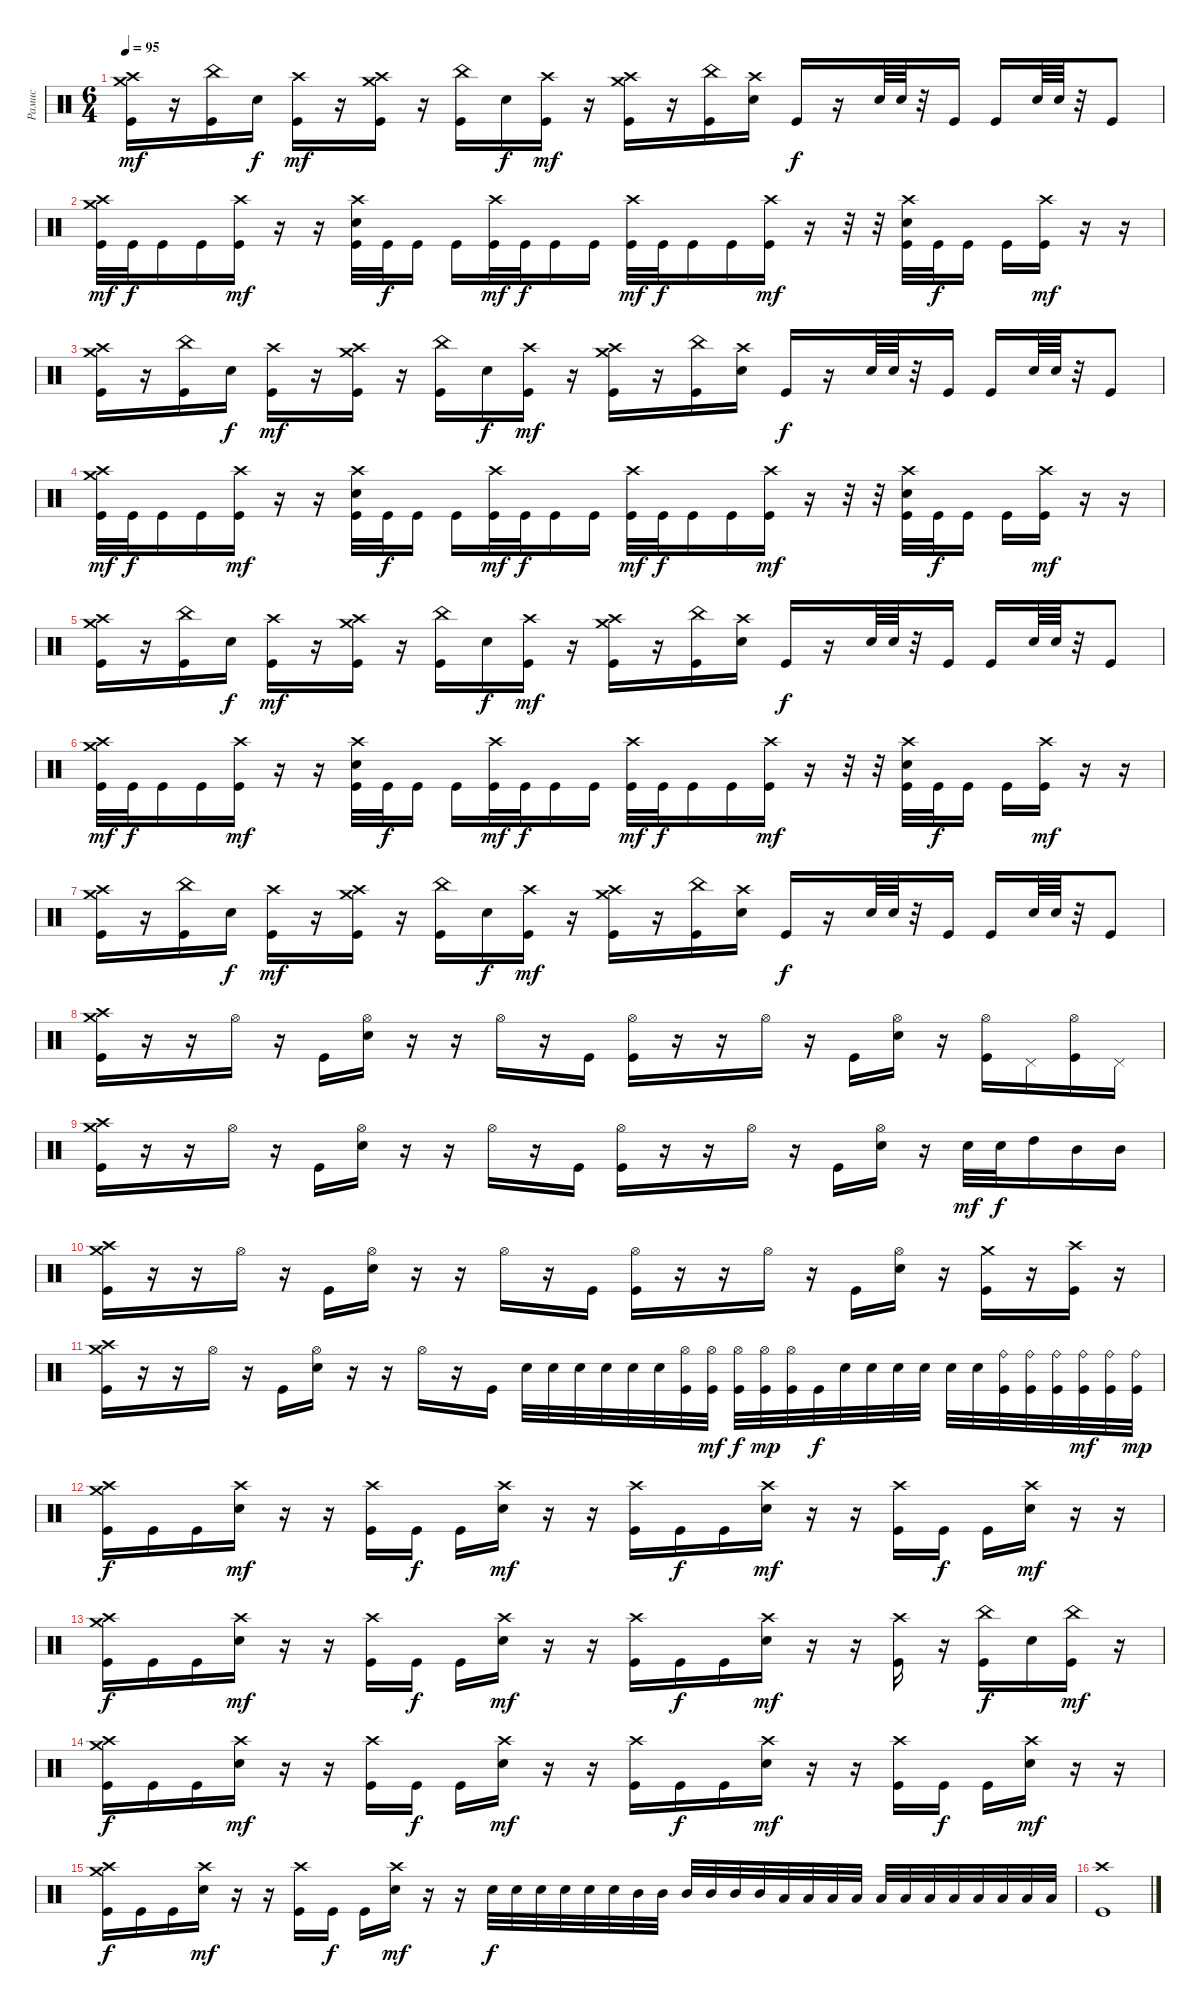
\track ("Рамис" "Рамис") {instrument percussion}
\staff {score}
\articulation defaults
\ts (6 4)
\tempo 95
\clef neutral
\ks c
("Crash high (hit)" "Crash medium (hit)" "Kick (hit)").16{dy mf} r.16 ("China (hit)" "Kick (hit)").16 "Electric Snare (hit)".16{dy f} ("Crash high (hit)" "Kick (hit)").16{dy mf} r.16 ("Crash high (hit)" "Crash medium (hit)" "Kick (hit)").16 r.16 ("China (hit)" "Kick (hit)").16 "Electric Snare (hit)".16{dy f} ("Crash high (hit)" "Kick (hit)").16{dy mf} r.16 ("Crash high (hit)" "Crash medium (hit)" "Kick (hit)").16 r.16 ("China (hit)" "Kick (hit)").16 ("Crash high (hit)" "Electric Snare (hit)").16 "Kick (hit)".16{dy f} r.16 "Electric Snare (hit)".64 "Electric Snare (hit)".64 r.32 "Kick (hit)".16 "Kick (hit)".16 "Electric Snare (hit)".64 "Electric Snare (hit)".64 r.32 "Kick (hit)".8 |
("Crash medium (hit)" "Crash high (hit)" "Kick (hit)").32{dy mf} "Kick (hit)".32{dy f} "Kick (hit)".16 "Kick (hit)".16 ("Crash high (hit)" "Kick (hit)").16{dy mf} r.16 r.16 ("Crash high (hit)" "Electric Snare (hit)" "Kick (hit)").32 "Kick (hit)".32{dy f} "Kick (hit)".16 "Kick (hit)".16 ("Crash high (hit)" "Kick (hit)").32{dy mf} "Kick (hit)".32{dy f} "Kick (hit)".16 "Kick (hit)".16 ("Crash high (hit)" "Kick (hit)").32{dy mf} "Kick (hit)".32{dy f} "Kick (hit)".16 "Kick (hit)".16 ("Crash high (hit)" "Kick (hit)").16{dy mf} r.16 r.32 r.32 ("Crash high (hit)" "Electric Snare (hit)" "Kick (hit)").32 "Kick (hit)".32{dy f} "Kick (hit)".16 "Kick (hit)".16 ("Crash high (hit)" "Kick (hit)").16{dy mf} r.16 r.16 |
("Crash high (hit)" "Crash medium (hit)" "Kick (hit)").16 r.16 ("China (hit)" "Kick (hit)").16 "Electric Snare (hit)".16{dy f} ("Crash high (hit)" "Kick (hit)").16{dy mf} r.16 ("Crash high (hit)" "Crash medium (hit)" "Kick (hit)").16 r.16 ("China (hit)" "Kick (hit)").16 "Electric Snare (hit)".16{dy f} ("Crash high (hit)" "Kick (hit)").16{dy mf} r.16 ("Crash high (hit)" "Crash medium (hit)" "Kick (hit)").16 r.16 ("China (hit)" "Kick (hit)").16 ("Crash high (hit)" "Electric Snare (hit)").16 "Kick (hit)".16{dy f} r.16 "Electric Snare (hit)".64 "Electric Snare (hit)".64 r.32 "Kick (hit)".16 "Kick (hit)".16 "Electric Snare (hit)".64 "Electric Snare (hit)".64 r.32 "Kick (hit)".8 |
("Crash medium (hit)" "Crash high (hit)" "Kick (hit)").32{dy mf} "Kick (hit)".32{dy f} "Kick (hit)".16 "Kick (hit)".16 ("Crash high (hit)" "Kick (hit)").16{dy mf} r.16 r.16 ("Crash high (hit)" "Electric Snare (hit)" "Kick (hit)").32 "Kick (hit)".32{dy f} "Kick (hit)".16 "Kick (hit)".16 ("Crash high (hit)" "Kick (hit)").32{dy mf} "Kick (hit)".32{dy f} "Kick (hit)".16 "Kick (hit)".16 ("Crash high (hit)" "Kick (hit)").32{dy mf} "Kick (hit)".32{dy f} "Kick (hit)".16 "Kick (hit)".16 ("Crash high (hit)" "Kick (hit)").16{dy mf} r.16 r.32 r.32 ("Crash high (hit)" "Electric Snare (hit)" "Kick (hit)").32 "Kick (hit)".32{dy f} "Kick (hit)".16 "Kick (hit)".16 ("Crash high (hit)" "Kick (hit)").16{dy mf} r.16 r.16 |
("Crash high (hit)" "Crash medium (hit)" "Kick (hit)").16 r.16 ("China (hit)" "Kick (hit)").16 "Electric Snare (hit)".16{dy f} ("Crash high (hit)" "Kick (hit)").16{dy mf} r.16 ("Crash high (hit)" "Crash medium (hit)" "Kick (hit)").16 r.16 ("China (hit)" "Kick (hit)").16 "Electric Snare (hit)".16{dy f} ("Crash high (hit)" "Kick (hit)").16{dy mf} r.16 ("Crash high (hit)" "Crash medium (hit)" "Kick (hit)").16 r.16 ("China (hit)" "Kick (hit)").16 ("Crash high (hit)" "Electric Snare (hit)").16 "Kick (hit)".16{dy f} r.16 "Electric Snare (hit)".64 "Electric Snare (hit)".64 r.32 "Kick (hit)".16 "Kick (hit)".16 "Electric Snare (hit)".64 "Electric Snare (hit)".64 r.32 "Kick (hit)".8 |
("Crash medium (hit)" "Crash high (hit)" "Kick (hit)").32{dy mf} "Kick (hit)".32{dy f} "Kick (hit)".16 "Kick (hit)".16 ("Crash high (hit)" "Kick (hit)").16{dy mf} r.16 r.16 ("Crash high (hit)" "Electric Snare (hit)" "Kick (hit)").32 "Kick (hit)".32{dy f} "Kick (hit)".16 "Kick (hit)".16 ("Crash high (hit)" "Kick (hit)").32{dy mf} "Kick (hit)".32{dy f} "Kick (hit)".16 "Kick (hit)".16 ("Crash high (hit)" "Kick (hit)").32{dy mf} "Kick (hit)".32{dy f} "Kick (hit)".16 "Kick (hit)".16 ("Crash high (hit)" "Kick (hit)").16{dy mf} r.16 r.32 r.32 ("Crash high (hit)" "Electric Snare (hit)" "Kick (hit)").32 "Kick (hit)".32{dy f} "Kick (hit)".16 "Kick (hit)".16 ("Crash high (hit)" "Kick (hit)").16{dy mf} r.16 r.16 |
("Crash high (hit)" "Crash medium (hit)" "Kick (hit)").16 r.16 ("China (hit)" "Kick (hit)").16 "Electric Snare (hit)".16{dy f} ("Crash high (hit)" "Kick (hit)").16{dy mf} r.16 ("Crash high (hit)" "Crash medium (hit)" "Kick (hit)").16 r.16 ("China (hit)" "Kick (hit)").16 "Electric Snare (hit)".16{dy f} ("Crash high (hit)" "Kick (hit)").16{dy mf} r.16 ("Crash high (hit)" "Crash medium (hit)" "Kick (hit)").16 r.16 ("China (hit)" "Kick (hit)").16 ("Crash high (hit)" "Electric Snare (hit)").16 "Kick (hit)".16{dy f} r.16 "Electric Snare (hit)".64 "Electric Snare (hit)".64 r.32 "Kick (hit)".16 "Kick (hit)".16 "Electric Snare (hit)".64 "Electric Snare (hit)".64 r.32 "Kick (hit)".8 |
("Crash medium (hit)" "Crash high (hit)" "Kick (hit)").16 r.16 r.16 "Hi-Hat (open)".16 r.16 "Kick (hit)".16 ("Hi-Hat (open)" "Electric Snare (hit)").16 r.16 r.16 "Hi-Hat (open)".16 r.16 "Kick (hit)".16 ("Hi-Hat (open)" "Kick (hit)").16 r.16 r.16 "Hi-Hat (open)".16 r.16 "Kick (hit)".16 ("Hi-Hat (open)" "Electric Snare (hit)").16 r.16 ("Hi-Hat (open)" "Kick (hit)").16 "Pedal Hi-Hat (hit)".16 ("Hi-Hat (open)" "Kick (hit)").16 "Pedal Hi-Hat (hit)".16 |
("Crash high (hit)" "Crash medium (hit)" "Kick (hit)").16 r.16 r.16 "Hi-Hat (open)".16 r.16 "Kick (hit)".16 ("Hi-Hat (open)" "Electric Snare (hit)").16 r.16 r.16 "Hi-Hat (open)".16 r.16 "Kick (hit)".16 ("Hi-Hat (open)" "Kick (hit)").16 r.16 r.16 "Hi-Hat (open)".16 r.16 "Kick (hit)".16 ("Hi-Hat (open)" "Electric Snare (hit)").16 r.16 "Electric Snare (hit)".32{dy mf} "Electric Snare (hit)".32{dy f} "High Tom (hit)".16 "Mid Tom (hit)".16 "Mid Tom (hit)".16 |
("Crash medium (hit)" "Crash high (hit)" "Kick (hit)").16 r.16 r.16 "Hi-Hat (open)".16 r.16 "Kick (hit)".16 ("Hi-Hat (open)" "Electric Snare (hit)").16 r.16 r.16 "Hi-Hat (open)".16 r.16 "Kick (hit)".16 ("Hi-Hat (open)" "Kick (hit)").16 r.16 r.16 "Hi-Hat (open)".16 r.16 "Kick (hit)".16 ("Hi-Hat (open)" "Electric Snare (hit)").16 r.16 ("Crash medium (hit)" "Kick (hit)").16 r.16 ("Crash high (hit)" "Kick (hit)").16 r.16 |
("Crash high (hit)" "Crash medium (hit)" "Kick (hit)").16 r.16 r.16 "Hi-Hat (open)".16 r.16 "Kick (hit)".16 ("Hi-Hat (open)" "Electric Snare (hit)").16 r.16 r.16 "Hi-Hat (open)".16 r.16 "Kick (hit)".16 "Electric Snare (hit)".32 "Electric Snare (hit)".32 "Electric Snare (hit)".32 "Electric Snare (hit)".32 "Electric Snare (hit)".32 "Electric Snare (hit)".32 ("Hi-Hat (open)" "Kick (hit)").32 ("Hi-Hat (open)" "Kick (hit)").32{dy mf} ("Hi-Hat (open)" "Kick (hit)").32{dy f} ("Hi-Hat (open)" "Kick (hit)").32{dy mp} ("Hi-Hat (open)" "Kick (hit)").32 "Kick (hit)".32{dy f} "Electric Snare (hit)".32 "Electric Snare (hit)".32 "Electric Snare (hit)".32 "Electric Snare (hit)".32 "Electric Snare (hit)".32 "Electric Snare (hit)".32 ("Ride (bell)" "Kick (hit)").32 ("Ride (bell)" "Kick (hit)").32 ("Ride (bell)" "Kick (hit)").32 ("Ride (bell)" "Kick (hit)").32{dy mf} ("Ride (bell)" "Kick (hit)").32 ("Ride (bell)" "Kick (hit)").32{dy mp} |
("Crash medium (hit)" "Crash high (hit)" "Kick (hit)").16{dy f} "Kick (hit)".16 "Kick (hit)".16 ("Crash high (hit)" "Electric Snare (hit)").16{dy mf} r.16 r.16 ("Crash high (hit)" "Kick (hit)").16 "Kick (hit)".16{dy f} "Kick (hit)".16 ("Crash high (hit)" "Electric Snare (hit)").16{dy mf} r.16 r.16 ("Crash high (hit)" "Kick (hit)").16 "Kick (hit)".16{dy f} "Kick (hit)".16 ("Crash high (hit)" "Electric Snare (hit)").16{dy mf} r.16 r.16 ("Crash high (hit)" "Kick (hit)").16 "Kick (hit)".16{dy f} "Kick (hit)".16 ("Crash high (hit)" "Electric Snare (hit)").16{dy mf} r.16 r.16 |
("Crash medium (hit)" "Crash high (hit)" "Kick (hit)").16{dy f} "Kick (hit)".16 "Kick (hit)".16 ("Crash high (hit)" "Electric Snare (hit)").16{dy mf} r.16 r.16 ("Crash high (hit)" "Kick (hit)").16 "Kick (hit)".16{dy f} "Kick (hit)".16 ("Crash high (hit)" "Electric Snare (hit)").16{dy mf} r.16 r.16 ("Crash high (hit)" "Kick (hit)").16 "Kick (hit)".16{dy f} "Kick (hit)".16 ("Crash high (hit)" "Electric Snare (hit)").16{dy mf} r.16 r.16 ("Crash high (hit)" "Kick (hit)").16 r.16 ("China (hit)" "Kick (hit)").16{dy f} "Electric Snare (hit)".16 ("China (hit)" "Kick (hit)").16{dy mf} r.16 |
("Crash medium (hit)" "Crash high (hit)" "Kick (hit)").16{dy f} "Kick (hit)".16 "Kick (hit)".16 ("Crash high (hit)" "Electric Snare (hit)").16{dy mf} r.16 r.16 ("Crash high (hit)" "Kick (hit)").16 "Kick (hit)".16{dy f} "Kick (hit)".16 ("Crash high (hit)" "Electric Snare (hit)").16{dy mf} r.16 r.16 ("Crash high (hit)" "Kick (hit)").16 "Kick (hit)".16{dy f} "Kick (hit)".16 ("Crash high (hit)" "Electric Snare (hit)").16{dy mf} r.16 r.16 ("Crash high (hit)" "Kick (hit)").16 "Kick (hit)".16{dy f} "Kick (hit)".16 ("Crash high (hit)" "Electric Snare (hit)").16{dy mf} r.16 r.16 |
("Crash medium (hit)" "Crash high (hit)" "Kick (hit)").16{dy f} "Kick (hit)".16 "Kick (hit)".16 ("Crash high (hit)" "Electric Snare (hit)").16{dy mf} r.16 r.16 ("Crash high (hit)" "Kick (hit)").16 "Kick (hit)".16{dy f} "Kick (hit)".16 ("Crash high (hit)" "Electric Snare (hit)").16{dy mf} r.16 r.16 "Electric Snare (hit)".32{dy f} "Electric Snare (hit)".32 "Electric Snare (hit)".32 "Electric Snare (hit)".32 "Electric Snare (hit)".32 "Electric Snare (hit)".32 "Mid Tom (hit)".32 "Mid Tom (hit)".32 "Mid Tom (hit)".32 "Mid Tom (hit)".32 "Mid Tom (hit)".32 "Mid Tom (hit)".32 "Low Tom (hit)".32 "Low Tom (hit)".32 "Low Tom (hit)".32 "Low Tom (hit)".32 "Low Tom (hit)".32 "Low Tom (hit)".32 "Low Tom (hit)".32 "Low Tom (hit)".32 "Low Tom (hit)".32 "Low Tom (hit)".32 "Low Tom (hit)".32 "Low Tom (hit)".32 |
("Crash high (hit)" "Kick (hit)").1
